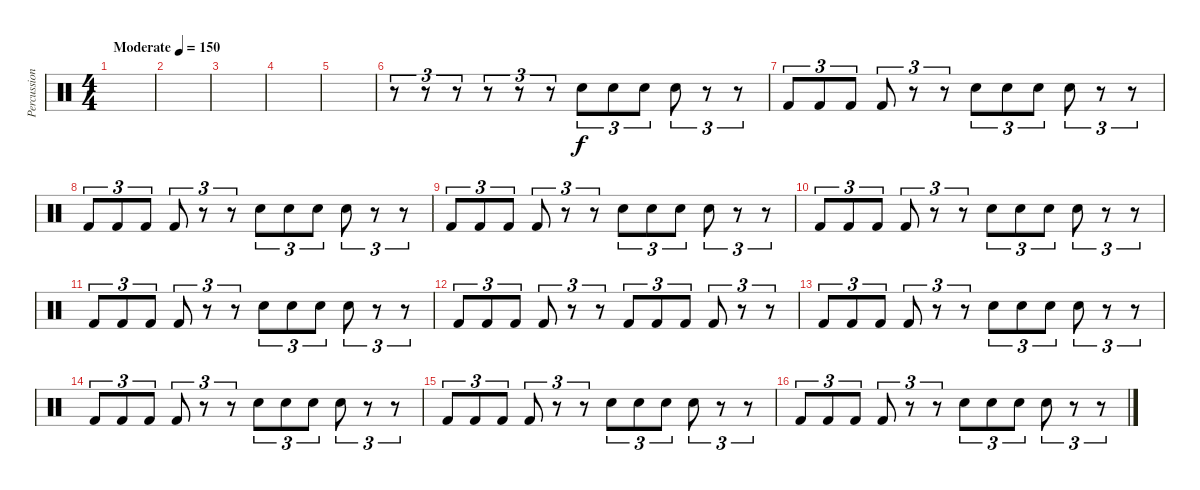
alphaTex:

\track ("Percussion" "Percussion") {instrument percussion}
\staff {score}
\articulation defaults
\ts (4 4)
\tempo (150 "Moderate")
\clef neutral
\ks c
|
|
|
|
|
r.8{tu (3 2)} r.8{tu (3 2)} r.8{tu (3 2)} r.8{tu (3 2)} r.8{tu (3 2)} r.8{tu (3 2)} "Snare (hit) 2".8{tu (3 2)} "Snare (hit) 2".8{tu (3 2)} "Snare (hit) 2".8{tu (3 2)} "Snare (hit) 2".8{tu (3 2)} r.8{tu (3 2)} r.8{tu (3 2)} |
"Kick (hit) 2".8{tu (3 2)} "Kick (hit) 2".8{tu (3 2)} "Kick (hit) 2".8{tu (3 2)} "Kick (hit) 2".8{tu (3 2)} r.8{tu (3 2)} r.8{tu (3 2)} "Snare (hit) 2".8{tu (3 2)} "Snare (hit) 2".8{tu (3 2)} "Snare (hit) 2".8{tu (3 2)} "Snare (hit) 2".8{tu (3 2)} r.8{tu (3 2)} r.8{tu (3 2)} |
"Kick (hit) 2".8{tu (3 2)} "Kick (hit) 2".8{tu (3 2)} "Kick (hit) 2".8{tu (3 2)} "Kick (hit) 2".8{tu (3 2)} r.8{tu (3 2)} r.8{tu (3 2)} "Snare (hit) 2".8{tu (3 2)} "Snare (hit) 2".8{tu (3 2)} "Snare (hit) 2".8{tu (3 2)} "Snare (hit) 2".8{tu (3 2)} r.8{tu (3 2)} r.8{tu (3 2)} |
"Kick (hit) 2".8{tu (3 2)} "Kick (hit) 2".8{tu (3 2)} "Kick (hit) 2".8{tu (3 2)} "Kick (hit) 2".8{tu (3 2)} r.8{tu (3 2)} r.8{tu (3 2)} "Snare (hit) 2".8{tu (3 2)} "Snare (hit) 2".8{tu (3 2)} "Snare (hit) 2".8{tu (3 2)} "Snare (hit) 2".8{tu (3 2)} r.8{tu (3 2)} r.8{tu (3 2)} |
"Kick (hit) 2".8{tu (3 2)} "Kick (hit) 2".8{tu (3 2)} "Kick (hit) 2".8{tu (3 2)} "Kick (hit) 2".8{tu (3 2)} r.8{tu (3 2)} r.8{tu (3 2)} "Snare (hit) 2".8{tu (3 2)} "Snare (hit) 2".8{tu (3 2)} "Snare (hit) 2".8{tu (3 2)} "Snare (hit) 2".8{tu (3 2)} r.8{tu (3 2)} r.8{tu (3 2)} |
"Kick (hit) 2".8{tu (3 2)} "Kick (hit) 2".8{tu (3 2)} "Kick (hit) 2".8{tu (3 2)} "Kick (hit) 2".8{tu (3 2)} r.8{tu (3 2)} r.8{tu (3 2)} "Snare (hit) 2".8{tu (3 2)} "Snare (hit) 2".8{tu (3 2)} "Snare (hit) 2".8{tu (3 2)} "Snare (hit) 2".8{tu (3 2)} r.8{tu (3 2)} r.8{tu (3 2)} |
"Kick (hit) 2".8{tu (3 2)} "Kick (hit) 2".8{tu (3 2)} "Kick (hit) 2".8{tu (3 2)} "Kick (hit) 2".8{tu (3 2)} r.8{tu (3 2)} r.8{tu (3 2)} "Kick (hit) 2".8{tu (3 2)} "Kick (hit) 2".8{tu (3 2)} "Kick (hit) 2".8{tu (3 2)} "Kick (hit) 2".8{tu (3 2)} r.8{tu (3 2)} r.8{tu (3 2)} |
"Kick (hit) 2".8{tu (3 2)} "Kick (hit) 2".8{tu (3 2)} "Kick (hit) 2".8{tu (3 2)} "Kick (hit) 2".8{tu (3 2)} r.8{tu (3 2)} r.8{tu (3 2)} "Snare (hit) 2".8{tu (3 2)} "Snare (hit) 2".8{tu (3 2)} "Snare (hit) 2".8{tu (3 2)} "Snare (hit) 2".8{tu (3 2)} r.8{tu (3 2)} r.8{tu (3 2)} |
"Kick (hit) 2".8{tu (3 2)} "Kick (hit) 2".8{tu (3 2)} "Kick (hit) 2".8{tu (3 2)} "Kick (hit) 2".8{tu (3 2)} r.8{tu (3 2)} r.8{tu (3 2)} "Snare (hit) 2".8{tu (3 2)} "Snare (hit) 2".8{tu (3 2)} "Snare (hit) 2".8{tu (3 2)} "Snare (hit) 2".8{tu (3 2)} r.8{tu (3 2)} r.8{tu (3 2)} |
"Kick (hit) 2".8{tu (3 2)} "Kick (hit) 2".8{tu (3 2)} "Kick (hit) 2".8{tu (3 2)} "Kick (hit) 2".8{tu (3 2)} r.8{tu (3 2)} r.8{tu (3 2)} "Snare (hit) 2".8{tu (3 2)} "Snare (hit) 2".8{tu (3 2)} "Snare (hit) 2".8{tu (3 2)} "Snare (hit) 2".8{tu (3 2)} r.8{tu (3 2)} r.8{tu (3 2)} |
"Kick (hit) 2".8{tu (3 2)} "Kick (hit) 2".8{tu (3 2)} "Kick (hit) 2".8{tu (3 2)} "Kick (hit) 2".8{tu (3 2)} r.8{tu (3 2)} r.8{tu (3 2)} "Snare (hit) 2".8{tu (3 2)} "Snare (hit) 2".8{tu (3 2)} "Snare (hit) 2".8{tu (3 2)} "Snare (hit) 2".8{tu (3 2)} r.8{tu (3 2)} r.8{tu (3 2)}
